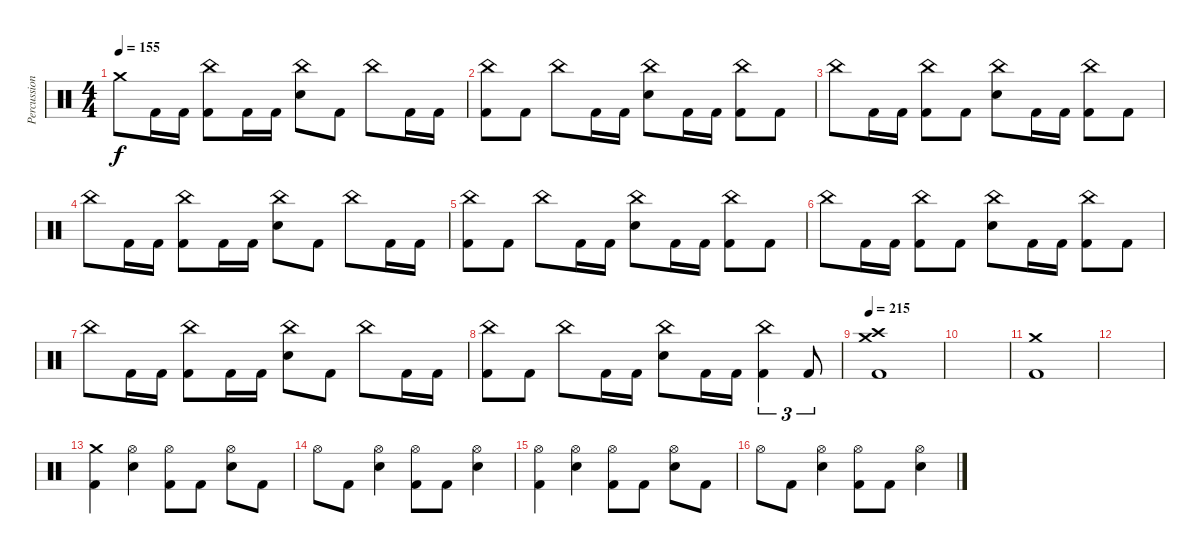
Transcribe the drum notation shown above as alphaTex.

\track ("Percussion" "Percussion") {instrument percussion}
\staff {score}
\articulation defaults
\ts (4 4)
\tempo 155
\clef neutral
\ks c "Crash medium (hit)".8{dy f} "Kick (hit) 2".16 "Kick (hit) 2".16
("China (hit)" "Kick (hit) 2").8 "Kick (hit) 2".16 "Kick (hit) 2".16 ("China (hit)" "Electric Snare (hit)").8 "Kick (hit) 2".8 "China (hit)".8 "Kick (hit) 2".16 "Kick (hit) 2".16 |
("China (hit)" "Kick (hit) 2").8 "Kick (hit) 2".8 "China (hit)".8 "Kick (hit) 2".16 "Kick (hit) 2".16 ("China (hit)" "Electric Snare (hit)").8 "Kick (hit) 2".16 "Kick (hit) 2".16 ("China (hit)" "Kick (hit) 2").8 "Kick (hit) 2".8 |
"China (hit)".8 "Kick (hit) 2".16 "Kick (hit) 2".16 ("China (hit)" "Kick (hit) 2").8 "Kick (hit) 2".8 ("China (hit)" "Electric Snare (hit)").8 "Kick (hit) 2".16 "Kick (hit) 2".16 ("China (hit)" "Kick (hit) 2").8 "Kick (hit) 2".8 |
"China (hit)".8 "Kick (hit) 2".16 "Kick (hit) 2".16 ("China (hit)" "Kick (hit) 2").8 "Kick (hit) 2".16 "Kick (hit) 2".16 ("China (hit)" "Electric Snare (hit)").8 "Kick (hit) 2".8 "China (hit)".8 "Kick (hit) 2".16 "Kick (hit) 2".16 |
("China (hit)" "Kick (hit) 2").8 "Kick (hit) 2".8 "China (hit)".8 "Kick (hit) 2".16 "Kick (hit) 2".16 ("China (hit)" "Electric Snare (hit)").8 "Kick (hit) 2".16 "Kick (hit) 2".16 ("China (hit)" "Kick (hit) 2").8 "Kick (hit) 2".8 |
"China (hit)".8 "Kick (hit) 2".16 "Kick (hit) 2".16 ("China (hit)" "Kick (hit) 2").8 "Kick (hit) 2".8 ("China (hit)" "Electric Snare (hit)").8 "Kick (hit) 2".16 "Kick (hit) 2".16 ("China (hit)" "Kick (hit) 2").8 "Kick (hit) 2".8 |
"China (hit)".8 "Kick (hit) 2".16 "Kick (hit) 2".16 ("China (hit)" "Kick (hit) 2").8 "Kick (hit) 2".16 "Kick (hit) 2".16 ("China (hit)" "Electric Snare (hit)").8 "Kick (hit) 2".8 "China (hit)".8 "Kick (hit) 2".16 "Kick (hit) 2".16 |
("China (hit)" "Kick (hit) 2").8 "Kick (hit) 2".8 "China (hit)".8 "Kick (hit) 2".16 "Kick (hit) 2".16 ("China (hit)" "Electric Snare (hit)").8 "Kick (hit) 2".16 "Kick (hit) 2".16 ("China (hit)" "Kick (hit) 2").4{tu (3 2)} "Kick (hit) 2".8{tu (3 2)} |
\tempo 215
("Crash medium (hit)" "Crash high (hit)" "Kick (hit) 2").1 |
|
("Crash medium (hit)" "Kick (hit) 2").1 |
|
("Crash medium (hit)" "Kick (hit) 2").4 ("Hi-Hat (open)" "Electric Snare (hit)").4 ("Hi-Hat (open)" "Kick (hit) 2").8 "Kick (hit) 2".8 ("Hi-Hat (open)" "Electric Snare (hit)").8 "Kick (hit) 2".8 |
"Hi-Hat (open)".8 "Kick (hit) 2".8 ("Hi-Hat (open)" "Electric Snare (hit)").4 ("Hi-Hat (open)" "Kick (hit) 2").8 "Kick (hit) 2".8 ("Hi-Hat (open)" "Electric Snare (hit)").4 |
("Hi-Hat (open)" "Kick (hit) 2").4 ("Hi-Hat (open)" "Electric Snare (hit)").4 ("Hi-Hat (open)" "Kick (hit) 2").8 "Kick (hit) 2".8 ("Hi-Hat (open)" "Electric Snare (hit)").8 "Kick (hit) 2".8 |
"Hi-Hat (open)".8 "Kick (hit) 2".8 ("Hi-Hat (open)" "Electric Snare (hit)").4 ("Hi-Hat (open)" "Kick (hit) 2").8 "Kick (hit) 2".8 ("Hi-Hat (open)" "Electric Snare (hit)").4
